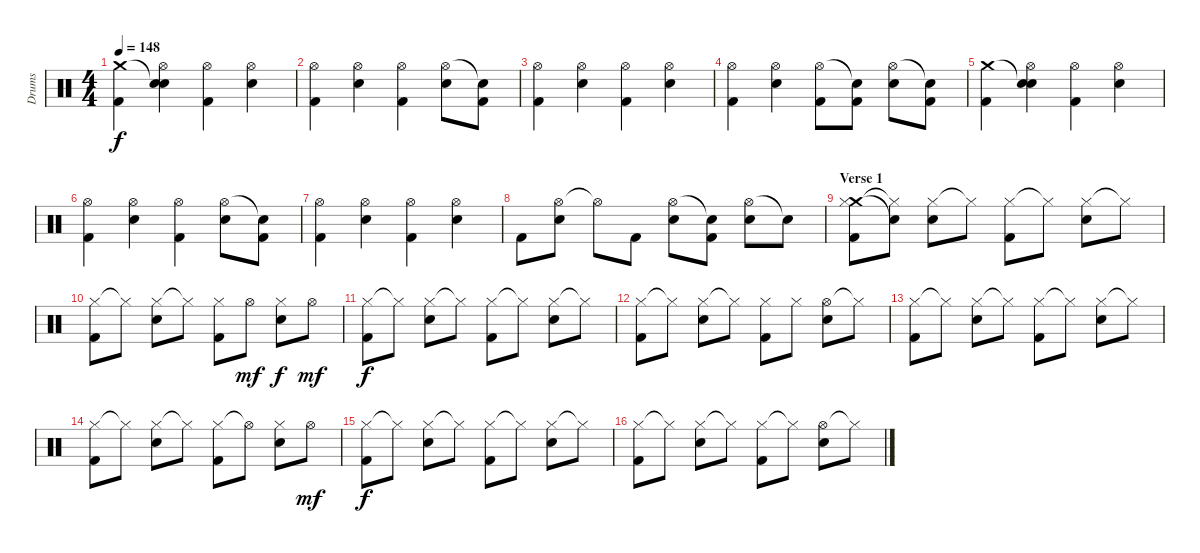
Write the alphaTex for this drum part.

\track ("Drums" "Drums") {instrument percussion}
\staff {score}
\articulation defaults
\ts (4 4)
\tempo 148
\clef neutral
\ks c
("Crash medium (hit)" "Kick (hit) 2").4{dy f} ("Snare (hit)"{t} "Hi-Hat (open)" "Electric Snare (hit)").4 ("Hi-Hat (open)" "Kick (hit) 2").4 ("Hi-Hat (open)" "Electric Snare (hit)").4 |
("Hi-Hat (open)" "Kick (hit) 2").4 ("Hi-Hat (open)" "Electric Snare (hit)").4 ("Hi-Hat (open)" "Kick (hit) 2").4 ("Hi-Hat (open)" "Electric Snare (hit)").8 ("Snare (hit)"{t} "Kick (hit) 2").8 |
("Hi-Hat (open)" "Kick (hit) 2").4 ("Hi-Hat (open)" "Electric Snare (hit)").4 ("Hi-Hat (open)" "Kick (hit) 2").4 ("Hi-Hat (open)" "Electric Snare (hit)").4 |
("Hi-Hat (open)" "Kick (hit) 2").4 ("Hi-Hat (open)" "Electric Snare (hit)").4 ("Hi-Hat (open)" "Kick (hit) 2").8 ("Snare (hit)"{t} "Kick (hit) 2").8 ("Hi-Hat (open)" "Electric Snare (hit)").8 ("Snare (hit)"{t} "Kick (hit) 2").8 |
("Crash medium (hit)" "Kick (hit) 2").4 ("Snare (hit)"{t} "Hi-Hat (open)" "Electric Snare (hit)").4 ("Hi-Hat (open)" "Kick (hit) 2").4 ("Hi-Hat (open)" "Electric Snare (hit)").4 |
("Hi-Hat (open)" "Kick (hit) 2").4 ("Hi-Hat (open)" "Electric Snare (hit)").4 ("Hi-Hat (open)" "Kick (hit) 2").4 ("Hi-Hat (open)" "Electric Snare (hit)").8 ("Snare (hit)"{t} "Kick (hit) 2").8 |
("Hi-Hat (open)" "Kick (hit) 2").4 ("Hi-Hat (open)" "Electric Snare (hit)").4 ("Hi-Hat (open)" "Kick (hit) 2").4 ("Hi-Hat (open)" "Electric Snare (hit)").4 |
"Kick (hit) 2".8 ("Hi-Hat (open)" "Electric Snare (hit)").8 "Hi-Hat (open)"{t}.8 "Kick (hit) 2".8 ("Hi-Hat (open)" "Electric Snare (hit)").8 ("Snare (hit)"{t} "Kick (hit) 2").8 ("Hi-Hat (open)" "Electric Snare (hit)").8 "Snare (hit)"{t}.8 |
\section ("" "Verse 1")
("Crash medium (hit)" "Hi-Hat (closed)" "Kick (hit) 2").8 ("Snare (hit)"{t} "Hi-Hat (closed)"{t}).8 ("Hi-Hat (closed)" "Electric Snare (hit)").8 "Hi-Hat (closed)"{t}.8 ("Hi-Hat (closed)" "Kick (hit) 2").8 "Hi-Hat (closed)"{t}.8 ("Hi-Hat (closed)" "Electric Snare (hit)").8 "Hi-Hat (closed)"{t}.8 |
("Hi-Hat (closed)" "Kick (hit) 2").8 "Hi-Hat (closed)"{t}.8 ("Hi-Hat (closed)" "Electric Snare (hit)").8 "Hi-Hat (closed)"{t}.8 ("Hi-Hat (closed)" "Kick (hit) 2").8 "Hi-Hat (open)".8{dy mf} ("Hi-Hat (closed)" "Electric Snare (hit)").8{dy f} "Hi-Hat (open)".8{dy mf} |
("Hi-Hat (closed)" "Kick (hit) 2").8{dy f} "Hi-Hat (closed)"{t}.8 ("Hi-Hat (closed)" "Electric Snare (hit)").8 "Hi-Hat (closed)"{t}.8 ("Hi-Hat (closed)" "Kick (hit) 2").8 "Hi-Hat (closed)"{t}.8 ("Hi-Hat (closed)" "Electric Snare (hit)").8 "Hi-Hat (closed)"{t}.8 |
("Hi-Hat (closed)" "Kick (hit) 2").8 "Hi-Hat (closed)"{t}.8 ("Hi-Hat (closed)" "Electric Snare (hit)").8 "Hi-Hat (closed)"{t}.8 ("Hi-Hat (closed)" "Kick (hit) 2").8 "Hi-Hat (closed)".8 ("Hi-Hat (open)" "Electric Snare (hit)").8 "Hi-Hat (closed)"{t}.8 |
("Hi-Hat (closed)" "Kick (hit) 2").8 "Hi-Hat (closed)"{t}.8 ("Hi-Hat (closed)" "Electric Snare (hit)").8 "Hi-Hat (closed)"{t}.8 ("Hi-Hat (closed)" "Kick (hit) 2").8 "Hi-Hat (closed)"{t}.8 ("Hi-Hat (closed)" "Electric Snare (hit)").8 "Hi-Hat (closed)"{t}.8 |
("Hi-Hat (closed)" "Kick (hit) 2").8 "Hi-Hat (closed)"{t}.8 ("Hi-Hat (closed)" "Electric Snare (hit)").8 "Hi-Hat (closed)"{t}.8 ("Hi-Hat (closed)" "Kick (hit) 2").8 "Hi-Hat (open)"{t}.8 ("Hi-Hat (closed)" "Electric Snare (hit)").8 "Hi-Hat (open)".8{dy mf} |
("Hi-Hat (closed)" "Kick (hit) 2").8{dy f} "Hi-Hat (closed)"{t}.8 ("Hi-Hat (closed)" "Electric Snare (hit)").8 "Hi-Hat (closed)"{t}.8 ("Hi-Hat (closed)" "Kick (hit) 2").8 "Hi-Hat (closed)"{t}.8 ("Hi-Hat (closed)" "Electric Snare (hit)").8 "Hi-Hat (closed)"{t}.8 |
("Hi-Hat (closed)" "Kick (hit) 2").8 "Hi-Hat (closed)"{t}.8 ("Hi-Hat (closed)" "Electric Snare (hit)").8 "Hi-Hat (closed)"{t}.8 ("Hi-Hat (closed)" "Kick (hit) 2").8 "Hi-Hat (closed)"{t}.8 ("Hi-Hat (open)" "Electric Snare (hit)").8 "Hi-Hat (closed)"{t}.8
